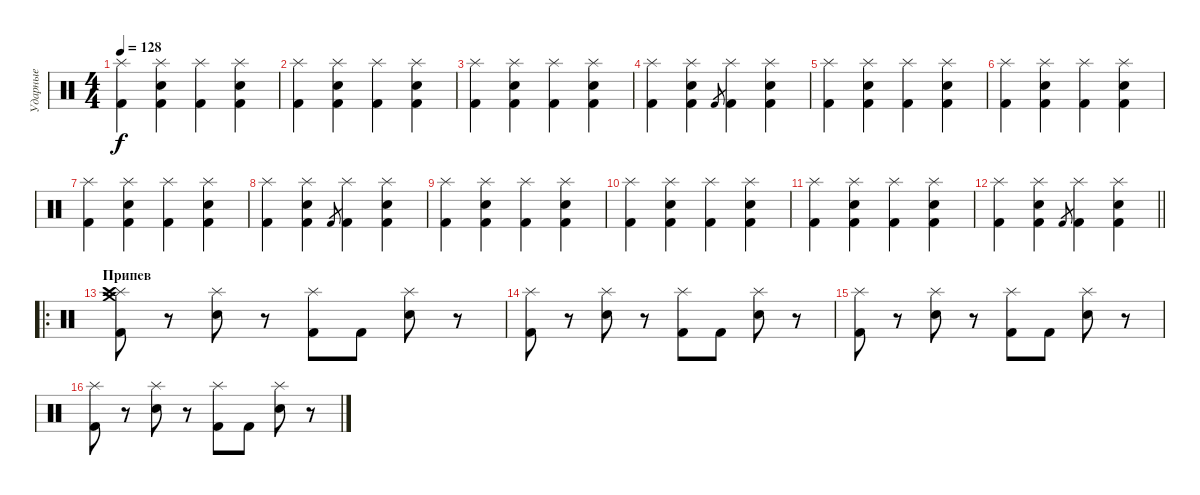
\track ("Ударные" "Ударные") {instrument percussion}
\staff {score}
\articulation defaults
\ts (4 4)
\tempo 128
\clef neutral
\ks c
("Splash (hit)" "Kick (hit) 2").4{dy f} ("Splash (hit)" "Electric Snare (hit)" "Kick (hit) 2").4 ("Splash (hit)" "Kick (hit) 2").4 ("Splash (hit)" "Electric Snare (hit)" "Kick (hit) 2").4 |
("Splash (hit)" "Kick (hit) 2").4 ("Splash (hit)" "Electric Snare (hit)" "Kick (hit) 2").4 ("Splash (hit)" "Kick (hit) 2").4 ("Splash (hit)" "Electric Snare (hit)" "Kick (hit) 2").4 |
("Splash (hit)" "Kick (hit) 2").4 ("Splash (hit)" "Electric Snare (hit)" "Kick (hit) 2").4 ("Splash (hit)" "Kick (hit) 2").4 ("Splash (hit)" "Electric Snare (hit)" "Kick (hit) 2").4 |
("Splash (hit)" "Kick (hit) 2").4 ("Splash (hit)" "Electric Snare (hit)" "Kick (hit) 2").4 "Kick (hit) 2".8{gr} ("Splash (hit)" "Kick (hit) 2").4 ("Splash (hit)" "Electric Snare (hit)" "Kick (hit) 2").4 |
("Splash (hit)" "Kick (hit) 2").4 ("Splash (hit)" "Electric Snare (hit)" "Kick (hit) 2").4 ("Splash (hit)" "Kick (hit) 2").4 ("Splash (hit)" "Electric Snare (hit)" "Kick (hit) 2").4 |
("Splash (hit)" "Kick (hit) 2").4 ("Splash (hit)" "Electric Snare (hit)" "Kick (hit) 2").4 ("Splash (hit)" "Kick (hit) 2").4 ("Splash (hit)" "Electric Snare (hit)" "Kick (hit) 2").4 |
("Splash (hit)" "Kick (hit) 2").4 ("Splash (hit)" "Electric Snare (hit)" "Kick (hit) 2").4 ("Splash (hit)" "Kick (hit) 2").4 ("Splash (hit)" "Electric Snare (hit)" "Kick (hit) 2").4 |
("Splash (hit)" "Kick (hit) 2").4 ("Splash (hit)" "Electric Snare (hit)" "Kick (hit) 2").4 "Kick (hit) 2".8{gr} ("Splash (hit)" "Kick (hit) 2").4 ("Splash (hit)" "Electric Snare (hit)" "Kick (hit) 2").4 |
("Splash (hit)" "Kick (hit) 2").4 ("Splash (hit)" "Electric Snare (hit)" "Kick (hit) 2").4 ("Splash (hit)" "Kick (hit) 2").4 ("Splash (hit)" "Electric Snare (hit)" "Kick (hit) 2").4 |
("Splash (hit)" "Kick (hit) 2").4 ("Splash (hit)" "Electric Snare (hit)" "Kick (hit) 2").4 ("Splash (hit)" "Kick (hit) 2").4 ("Splash (hit)" "Electric Snare (hit)" "Kick (hit) 2").4 |
("Splash (hit)" "Kick (hit) 2").4 ("Splash (hit)" "Electric Snare (hit)" "Kick (hit) 2").4 ("Splash (hit)" "Kick (hit) 2").4 ("Splash (hit)" "Electric Snare (hit)" "Kick (hit) 2").4 |
\barLineRight lightlight
("Splash (hit)" "Kick (hit) 2").4 ("Splash (hit)" "Electric Snare (hit)" "Kick (hit) 2").4 "Kick (hit) 2".8{gr} ("Splash (hit)" "Kick (hit) 2").4 ("Splash (hit)" "Electric Snare (hit)" "Kick (hit) 2").4 |
\ro
\section ("" "Припев")
("Splash (hit)" "Crash high (hit)" "Crash medium (hit)" "Kick (hit) 2").8 r.8 ("Splash (hit)" "Electric Snare (hit)").8 r.8 ("Splash (hit)" "Kick (hit) 2").8 "Kick (hit) 2".8 ("Splash (hit)" "Electric Snare (hit)").8 r.8 |
("Splash (hit)" "Kick (hit) 2").8 r.8 ("Splash (hit)" "Electric Snare (hit)").8 r.8 ("Splash (hit)" "Kick (hit) 2").8 "Kick (hit) 2".8 ("Splash (hit)" "Electric Snare (hit)").8 r.8 |
("Splash (hit)" "Kick (hit) 2").8 r.8 ("Splash (hit)" "Electric Snare (hit)").8 r.8 ("Splash (hit)" "Kick (hit) 2").8 "Kick (hit) 2".8 ("Splash (hit)" "Electric Snare (hit)").8 r.8 |
("Splash (hit)" "Kick (hit) 2").8 r.8 ("Splash (hit)" "Electric Snare (hit)").8 r.8 ("Splash (hit)" "Kick (hit) 2").8 "Kick (hit) 2".8 ("Splash (hit)" "Electric Snare (hit)").8 r.8
